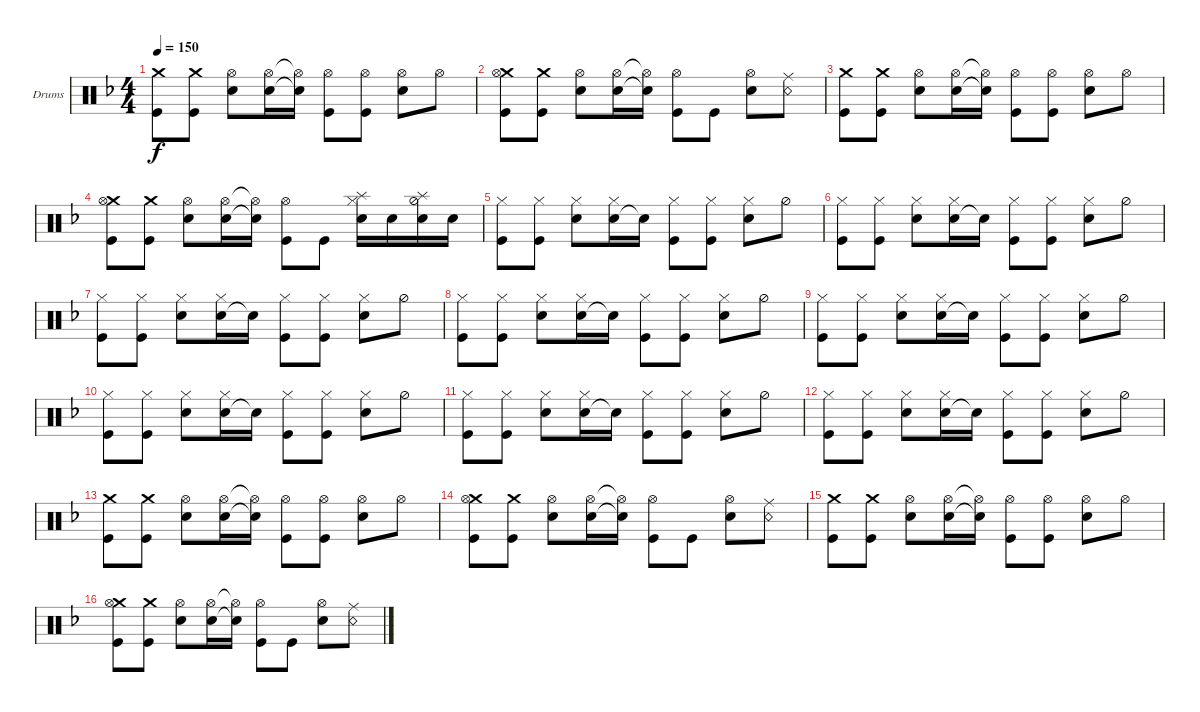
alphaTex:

\defaultSystemsLayout 4
\bracketExtendMode groupsimilarinstruments
\firstSystemTrackNameOrientation horizontal
\otherSystemsTrackNameOrientation horizontal
\track ("Шуруп - Ударные" "Drums") {instrument percussion}
\staff {score}
\articulation defaults
\ts (4 4)
\tempo 150
\clef neutral
\ks f
("Kick (hit)" "Crash medium (hit)").8{dy f} ("Kick (hit)" "Crash medium (hit)").8 ("Snare (hit) 2" "Hi-Hat (open)").8 ("Snare (hit) 2" "Hi-Hat (open)").16 ("Snare (hit) 2"{t} "Hi-Hat (open)"{t}).16 ("Kick (hit)" "Hi-Hat (open)").8 ("Kick (hit)" "Hi-Hat (open)").8 ("Snare (hit) 2" "Hi-Hat (open)").8 "Hi-Hat (open)".8 |
("Kick (hit)" "Crash medium (hit)" "Hi-Hat (open)").8 ("Kick (hit)" "Crash medium (hit)").8 ("Snare (hit) 2" "Hi-Hat (open)").8 ("Snare (hit) 2" "Hi-Hat (open)").16 ("Snare (hit) 2"{t} "Hi-Hat (open)"{t}).16 ("Kick (hit)" "Hi-Hat (open)").8 "Kick (hit)".8 ("Snare (hit) 2" "Hi-Hat (open)").8 ("Snare (rim shot)" "Ride (middle)").8 |
("Kick (hit)" "Crash medium (hit)").8 ("Kick (hit)" "Crash medium (hit)").8 ("Snare (hit) 2" "Hi-Hat (open)").8 ("Snare (hit) 2" "Hi-Hat (open)").16 ("Snare (hit) 2"{t} "Hi-Hat (open)"{t}).16 ("Kick (hit)" "Hi-Hat (open)").8 ("Kick (hit)" "Hi-Hat (open)").8 ("Snare (hit) 2" "Hi-Hat (open)").8 "Hi-Hat (open)".8 |
("Kick (hit)" "Crash medium (hit)" "Hi-Hat (open)").8 ("Kick (hit)" "Crash medium (hit)").8 ("Snare (hit) 2" "Hi-Hat (open)").8 ("Snare (hit) 2" "Hi-Hat (open)").16 ("Snare (hit) 2"{t} "Hi-Hat (open)"{t}).16 ("Kick (hit)" "Hi-Hat (open)").8 "Kick (hit)".8 ("Snare (hit) 2" "Hi-Hat (closed)" "Splash (hit)").16 "Snare (hit) 2".16 ("Hi-Hat (half)" "Splash (hit)" "Snare (hit) 2").16 "Snare (hit) 2".16 |
("Kick (hit)" "Hi-Hat (closed)").8 ("Kick (hit)" "Hi-Hat (closed)").8 ("Snare (hit) 2" "Hi-Hat (closed)").8 ("Snare (hit) 2" "Hi-Hat (closed)").16 "Snare (hit) 2"{t}.16 ("Kick (hit)" "Hi-Hat (closed)").8 ("Kick (hit)" "Hi-Hat (closed)").8 ("Snare (hit) 2" "Hi-Hat (closed)").8 "Hi-Hat (half)".8 |
("Kick (hit)" "Hi-Hat (closed)").8 ("Kick (hit)" "Hi-Hat (closed)").8 ("Snare (hit) 2" "Hi-Hat (closed)").8 ("Snare (hit) 2" "Hi-Hat (closed)").16 "Snare (hit) 2"{t}.16 ("Kick (hit)" "Hi-Hat (closed)").8 ("Kick (hit)" "Hi-Hat (closed)").8 ("Snare (hit) 2" "Hi-Hat (closed)").8 "Hi-Hat (half)".8 |
("Kick (hit)" "Hi-Hat (closed)").8 ("Kick (hit)" "Hi-Hat (closed)").8 ("Snare (hit) 2" "Hi-Hat (closed)").8 ("Snare (hit) 2" "Hi-Hat (closed)").16 "Snare (hit) 2"{t}.16 ("Kick (hit)" "Hi-Hat (closed)").8 ("Kick (hit)" "Hi-Hat (closed)").8 ("Snare (hit) 2" "Hi-Hat (closed)").8 "Hi-Hat (half)".8 |
("Kick (hit)" "Hi-Hat (closed)").8 ("Kick (hit)" "Hi-Hat (closed)").8 ("Snare (hit) 2" "Hi-Hat (closed)").8 ("Snare (hit) 2" "Hi-Hat (closed)").16 "Snare (hit) 2"{t}.16 ("Kick (hit)" "Hi-Hat (closed)").8 ("Kick (hit)" "Hi-Hat (closed)").8 ("Snare (hit) 2" "Hi-Hat (closed)").8 "Hi-Hat (half)".8 |
("Kick (hit)" "Hi-Hat (closed)").8 ("Kick (hit)" "Hi-Hat (closed)").8 ("Snare (hit) 2" "Hi-Hat (closed)").8 ("Snare (hit) 2" "Hi-Hat (closed)").16 "Snare (hit) 2"{t}.16 ("Kick (hit)" "Hi-Hat (closed)").8 ("Kick (hit)" "Hi-Hat (closed)").8 ("Snare (hit) 2" "Hi-Hat (closed)").8 "Hi-Hat (half)".8 |
("Kick (hit)" "Hi-Hat (closed)").8 ("Kick (hit)" "Hi-Hat (closed)").8 ("Snare (hit) 2" "Hi-Hat (closed)").8 ("Snare (hit) 2" "Hi-Hat (closed)").16 "Snare (hit) 2"{t}.16 ("Kick (hit)" "Hi-Hat (closed)").8 ("Kick (hit)" "Hi-Hat (closed)").8 ("Snare (hit) 2" "Hi-Hat (closed)").8 "Hi-Hat (half)".8 |
("Kick (hit)" "Hi-Hat (closed)").8 ("Kick (hit)" "Hi-Hat (closed)").8 ("Snare (hit) 2" "Hi-Hat (closed)").8 ("Snare (hit) 2" "Hi-Hat (closed)").16 "Snare (hit) 2"{t}.16 ("Kick (hit)" "Hi-Hat (closed)").8 ("Kick (hit)" "Hi-Hat (closed)").8 ("Snare (hit) 2" "Hi-Hat (closed)").8 "Hi-Hat (half)".8 |
("Kick (hit)" "Hi-Hat (closed)").8 ("Kick (hit)" "Hi-Hat (closed)").8 ("Snare (hit) 2" "Hi-Hat (closed)").8 ("Snare (hit) 2" "Hi-Hat (closed)").16 "Snare (hit) 2"{t}.16 ("Kick (hit)" "Hi-Hat (closed)").8 ("Kick (hit)" "Hi-Hat (closed)").8 ("Snare (hit) 2" "Hi-Hat (closed)").8 "Hi-Hat (half)".8 |
("Kick (hit)" "Crash medium (hit)").8 ("Kick (hit)" "Crash medium (hit)").8 ("Snare (hit) 2" "Hi-Hat (open)").8 ("Snare (hit) 2" "Hi-Hat (open)").16 ("Snare (hit) 2"{t} "Hi-Hat (open)"{t}).16 ("Kick (hit)" "Hi-Hat (open)").8 ("Kick (hit)" "Hi-Hat (open)").8 ("Snare (hit) 2" "Hi-Hat (open)").8 "Hi-Hat (open)".8 |
("Kick (hit)" "Crash medium (hit)" "Hi-Hat (open)").8 ("Kick (hit)" "Crash medium (hit)").8 ("Snare (hit) 2" "Hi-Hat (open)").8 ("Snare (hit) 2" "Hi-Hat (open)").16 ("Snare (hit) 2"{t} "Hi-Hat (open)"{t}).16 ("Kick (hit)" "Hi-Hat (open)").8 "Kick (hit)".8 ("Snare (hit) 2" "Hi-Hat (open)").8 ("Snare (rim shot)" "Ride (middle)").8 |
("Kick (hit)" "Crash medium (hit)").8 ("Kick (hit)" "Crash medium (hit)").8 ("Snare (hit) 2" "Hi-Hat (open)").8 ("Snare (hit) 2" "Hi-Hat (open)").16 ("Snare (hit) 2"{t} "Hi-Hat (open)"{t}).16 ("Kick (hit)" "Hi-Hat (open)").8 ("Kick (hit)" "Hi-Hat (open)").8 ("Snare (hit) 2" "Hi-Hat (open)").8 "Hi-Hat (open)".8 |
("Kick (hit)" "Crash medium (hit)" "Hi-Hat (open)").8 ("Kick (hit)" "Crash medium (hit)").8 ("Snare (hit) 2" "Hi-Hat (open)").8 ("Snare (hit) 2" "Hi-Hat (open)").16 ("Snare (hit) 2"{t} "Hi-Hat (open)"{t}).16 ("Kick (hit)" "Hi-Hat (open)").8 "Kick (hit)".8 ("Snare (hit) 2" "Hi-Hat (open)").8 ("Snare (rim shot)" "Ride (middle)").8
